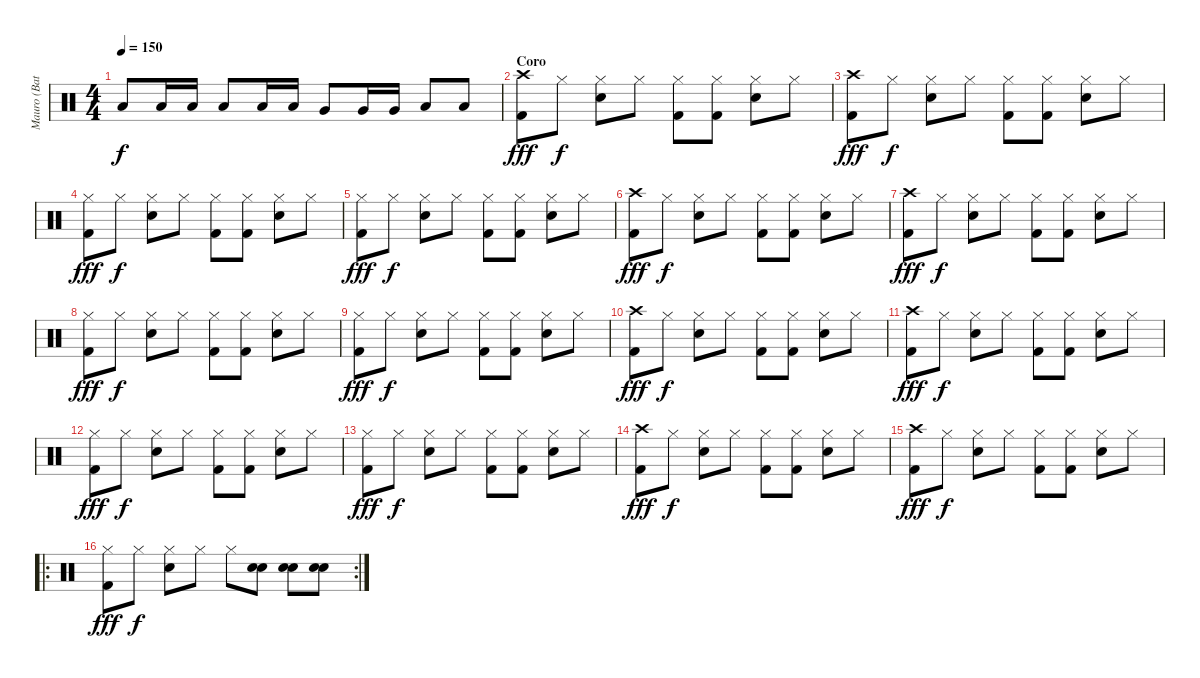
\track ("Mauro (Bateria)" "Mauro (Bat") {instrument percussion}
\staff {score}
\articulation defaults
\ts (4 4)
\tempo 150
\clef neutral
\ks c "Low Tom (hit)".8{dy f} "Low Tom (hit)".16 "Low Tom (hit)".16 "Low Tom (hit)".8 "Low Tom (hit)".16 "Low Tom (hit)".16 "Very Low Tom (hit)".8 "Very Low Tom (hit)".16 "Very Low Tom (hit)".16 "Low Floor Tom (hit)".8 "Low Floor Tom (hit)".8
|
\section ("" "Coro")
("Crash high (hit)" "Kick (hit) 2").8{dy fff} "Hi-Hat (closed)".8{dy f} ("Hi-Hat (closed)" "Snare (hit) 2").8 "Hi-Hat (closed)".8 ("Hi-Hat (closed)" "Kick (hit) 2").8 ("Hi-Hat (closed)" "Kick (hit) 2").8 ("Hi-Hat (closed)" "Snare (hit) 2").8 "Hi-Hat (closed)".8 |
("Crash high (hit)" "Kick (hit) 2").8{dy fff} "Hi-Hat (closed)".8{dy f} ("Hi-Hat (closed)" "Snare (hit) 2").8 "Hi-Hat (closed)".8 ("Hi-Hat (closed)" "Kick (hit) 2").8 ("Hi-Hat (closed)" "Kick (hit) 2").8 ("Hi-Hat (closed)" "Snare (hit) 2").8 "Hi-Hat (closed)".8 |
("Hi-Hat (closed)" "Kick (hit) 2").8{dy fff} "Hi-Hat (closed)".8{dy f} ("Hi-Hat (closed)" "Snare (hit) 2").8 "Hi-Hat (closed)".8 ("Hi-Hat (closed)" "Kick (hit) 2").8 ("Hi-Hat (closed)" "Kick (hit) 2").8 ("Hi-Hat (closed)" "Snare (hit) 2").8 "Hi-Hat (closed)".8 |
("Hi-Hat (closed)" "Kick (hit) 2").8{dy fff} "Hi-Hat (closed)".8{dy f} ("Hi-Hat (closed)" "Snare (hit) 2").8 "Hi-Hat (closed)".8 ("Hi-Hat (closed)" "Kick (hit) 2").8 ("Hi-Hat (closed)" "Kick (hit) 2").8 ("Hi-Hat (closed)" "Snare (hit) 2").8 "Hi-Hat (closed)".8 |
("Crash high (hit)" "Kick (hit) 2").8{dy fff} "Hi-Hat (closed)".8{dy f} ("Hi-Hat (closed)" "Snare (hit) 2").8 "Hi-Hat (closed)".8 ("Hi-Hat (closed)" "Kick (hit) 2").8 ("Hi-Hat (closed)" "Kick (hit) 2").8 ("Hi-Hat (closed)" "Snare (hit) 2").8 "Hi-Hat (closed)".8 |
("Crash high (hit)" "Kick (hit) 2").8{dy fff} "Hi-Hat (closed)".8{dy f} ("Hi-Hat (closed)" "Snare (hit) 2").8 "Hi-Hat (closed)".8 ("Hi-Hat (closed)" "Kick (hit) 2").8 ("Hi-Hat (closed)" "Kick (hit) 2").8 ("Hi-Hat (closed)" "Snare (hit) 2").8 "Hi-Hat (closed)".8 |
("Hi-Hat (closed)" "Kick (hit) 2").8{dy fff} "Hi-Hat (closed)".8{dy f} ("Hi-Hat (closed)" "Snare (hit) 2").8 "Hi-Hat (closed)".8 ("Hi-Hat (closed)" "Kick (hit) 2").8 ("Hi-Hat (closed)" "Kick (hit) 2").8 ("Hi-Hat (closed)" "Snare (hit) 2").8 "Hi-Hat (closed)".8 |
("Hi-Hat (closed)" "Kick (hit) 2").8{dy fff} "Hi-Hat (closed)".8{dy f} ("Hi-Hat (closed)" "Snare (hit) 2").8 "Hi-Hat (closed)".8 ("Hi-Hat (closed)" "Kick (hit) 2").8 ("Hi-Hat (closed)" "Kick (hit) 2").8 ("Hi-Hat (closed)" "Snare (hit) 2").8 "Hi-Hat (closed)".8 |
("Crash high (hit)" "Kick (hit) 2").8{dy fff} "Hi-Hat (closed)".8{dy f} ("Hi-Hat (closed)" "Snare (hit) 2").8 "Hi-Hat (closed)".8 ("Hi-Hat (closed)" "Kick (hit) 2").8 ("Hi-Hat (closed)" "Kick (hit) 2").8 ("Hi-Hat (closed)" "Snare (hit) 2").8 "Hi-Hat (closed)".8 |
("Crash high (hit)" "Kick (hit) 2").8{dy fff} "Hi-Hat (closed)".8{dy f} ("Hi-Hat (closed)" "Snare (hit) 2").8 "Hi-Hat (closed)".8 ("Hi-Hat (closed)" "Kick (hit) 2").8 ("Hi-Hat (closed)" "Kick (hit) 2").8 ("Hi-Hat (closed)" "Snare (hit) 2").8 "Hi-Hat (closed)".8 |
("Hi-Hat (closed)" "Kick (hit) 2").8{dy fff} "Hi-Hat (closed)".8{dy f} ("Hi-Hat (closed)" "Snare (hit) 2").8 "Hi-Hat (closed)".8 ("Hi-Hat (closed)" "Kick (hit) 2").8 ("Hi-Hat (closed)" "Kick (hit) 2").8 ("Hi-Hat (closed)" "Snare (hit) 2").8 "Hi-Hat (closed)".8 |
("Hi-Hat (closed)" "Kick (hit) 2").8{dy fff} "Hi-Hat (closed)".8{dy f} ("Hi-Hat (closed)" "Snare (hit) 2").8 "Hi-Hat (closed)".8 ("Hi-Hat (closed)" "Kick (hit) 2").8 ("Hi-Hat (closed)" "Kick (hit) 2").8 ("Hi-Hat (closed)" "Snare (hit) 2").8 "Hi-Hat (closed)".8 |
("Crash high (hit)" "Kick (hit) 2").8{dy fff} "Hi-Hat (closed)".8{dy f} ("Hi-Hat (closed)" "Snare (hit) 2").8 "Hi-Hat (closed)".8 ("Hi-Hat (closed)" "Kick (hit) 2").8 ("Hi-Hat (closed)" "Kick (hit) 2").8 ("Hi-Hat (closed)" "Snare (hit) 2").8 "Hi-Hat (closed)".8 |
("Crash high (hit)" "Kick (hit) 2").8{dy fff} "Hi-Hat (closed)".8{dy f} ("Hi-Hat (closed)" "Snare (hit) 2").8 "Hi-Hat (closed)".8 ("Hi-Hat (closed)" "Kick (hit) 2").8 ("Hi-Hat (closed)" "Kick (hit) 2").8 ("Hi-Hat (closed)" "Snare (hit) 2").8 "Hi-Hat (closed)".8 |
\ro
\rc 2
("Hi-Hat (closed)" "Kick (hit) 2").8{dy fff} "Hi-Hat (closed)".8{dy f} ("Hi-Hat (closed)" "Snare (hit) 2").8 "Hi-Hat (closed)".8 "Hi-Hat (closed)".8 ("Snare (hit) 2" "Snare (hit) 2").8 ("Snare (hit) 2" "Snare (hit) 2").8 ("Snare (hit) 2" "Snare (hit) 2").8
